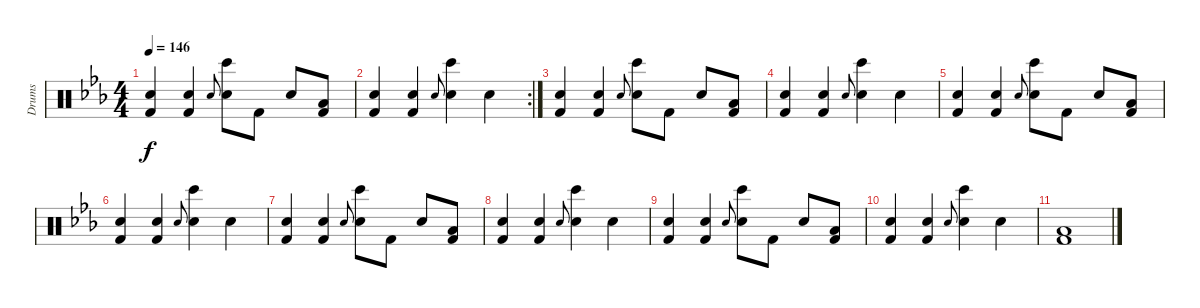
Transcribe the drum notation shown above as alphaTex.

\track ("Drums" "Drums") {instrument percussion}
\staff {score}
\articulation defaults
\ts (4 4)
\tempo 146
\clef neutral
\ks cminor
("Hand Clap (hit)" "Kick (hit) 2").4{dy f} ("Hand Clap (hit)" "Kick (hit) 2").4 "Electric Snare (hit)".8{gr onbeat} ("Hand Clap (hit)" "Bongo High (hit)").8 "Kick (hit) 2".8 "Hand Clap (hit)".8 ("Low Floor Tom (hit)" "Kick (hit) 2").8 |
\rc 2
("Hand Clap (hit)" "Kick (hit) 2").4 ("Hand Clap (hit)" "Kick (hit) 2").4 "Electric Snare (hit)".8{gr onbeat} ("Hand Clap (hit)" "Bongo High (hit)").4 "Hand Clap (hit)".4 |
("Hand Clap (hit)" "Kick (hit) 2").4 ("Hand Clap (hit)" "Kick (hit) 2").4 "Electric Snare (hit)".8{gr onbeat} ("Hand Clap (hit)" "Bongo High (hit)").8 "Kick (hit) 2".8 "Hand Clap (hit)".8 ("Low Floor Tom (hit)" "Kick (hit) 2").8 |
("Hand Clap (hit)" "Kick (hit) 2").4 ("Hand Clap (hit)" "Kick (hit) 2").4 "Electric Snare (hit)".8{gr onbeat} ("Hand Clap (hit)" "Bongo High (hit)").4 "Hand Clap (hit)".4 |
("Hand Clap (hit)" "Kick (hit) 2").4 ("Hand Clap (hit)" "Kick (hit) 2").4 "Electric Snare (hit)".8{gr onbeat} ("Hand Clap (hit)" "Bongo High (hit)").8 "Kick (hit) 2".8 "Hand Clap (hit)".8 ("Low Floor Tom (hit)" "Kick (hit) 2").8 |
("Hand Clap (hit)" "Kick (hit) 2").4 ("Hand Clap (hit)" "Kick (hit) 2").4 "Electric Snare (hit)".8{gr onbeat} ("Hand Clap (hit)" "Bongo High (hit)").4 "Hand Clap (hit)".4 |
("Hand Clap (hit)" "Kick (hit) 2").4 ("Hand Clap (hit)" "Kick (hit) 2").4 "Electric Snare (hit)".8{gr onbeat} ("Hand Clap (hit)" "Bongo High (hit)").8 "Kick (hit) 2".8 "Hand Clap (hit)".8 ("Low Floor Tom (hit)" "Kick (hit) 2").8 |
("Hand Clap (hit)" "Kick (hit) 2").4 ("Hand Clap (hit)" "Kick (hit) 2").4 "Electric Snare (hit)".8{gr onbeat} ("Hand Clap (hit)" "Bongo High (hit)").4 "Hand Clap (hit)".4 |
("Hand Clap (hit)" "Kick (hit) 2").4 ("Hand Clap (hit)" "Kick (hit) 2").4 "Electric Snare (hit)".8{gr onbeat} ("Hand Clap (hit)" "Bongo High (hit)").8 "Kick (hit) 2".8 "Hand Clap (hit)".8 ("Low Floor Tom (hit)" "Kick (hit) 2").8 |
("Hand Clap (hit)" "Kick (hit) 2").4 ("Hand Clap (hit)" "Kick (hit) 2").4 "Electric Snare (hit)".8{gr onbeat} ("Hand Clap (hit)" "Bongo High (hit)").4 "Hand Clap (hit)".4 |
("Low Floor Tom (hit)" "Kick (hit) 2").1
